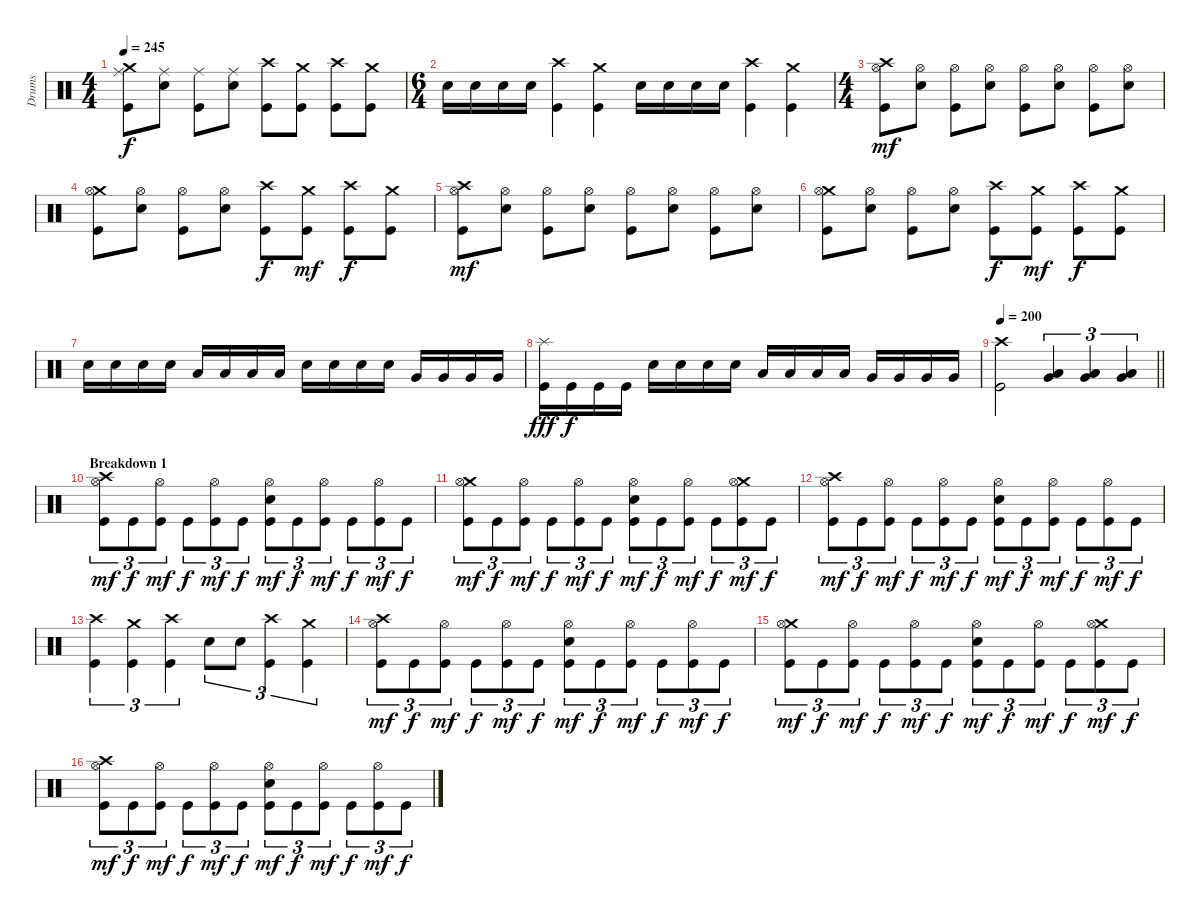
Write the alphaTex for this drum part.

\track ("Drums" "Drums") {instrument percussion}
\staff {score}
\articulation defaults
\ts (4 4)
\tempo 245
\clef neutral
\ks c
("Crash medium (hit)" "Ride (middle)" "Kick (hit)").8{dy f} ("Ride (middle)" "Electric Snare (hit)").8 ("Ride (middle)" "Kick (hit)").8 ("Ride (middle)" "Electric Snare (hit)").8 ("Crash high (hit)" "Kick (hit)").8 ("Crash medium (hit)" "Kick (hit)").8 ("Crash high (hit)" "Kick (hit)").8 ("Crash medium (hit)" "Kick (hit)").8 |
\ts (6 4)
"Electric Snare (hit)".16 "Electric Snare (hit)".16 "Electric Snare (hit)".16 "Electric Snare (hit)".16 ("Crash high (hit)" "Kick (hit)").4 ("Crash medium (hit)" "Kick (hit)").4 "Electric Snare (hit)".16 "Electric Snare (hit)".16 "Electric Snare (hit)".16 "Electric Snare (hit)".16 ("Crash high (hit)" "Kick (hit)").4 ("Crash medium (hit)" "Kick (hit)").4 |
\ts (4 4)
("Crash high (hit)" "Hi-Hat (open)" "Kick (hit)").8{dy mf} ("Hi-Hat (open)" "Electric Snare (hit)").8 ("Hi-Hat (open)" "Kick (hit)").8 ("Hi-Hat (open)" "Electric Snare (hit)").8 ("Hi-Hat (open)" "Kick (hit)").8 ("Hi-Hat (open)" "Electric Snare (hit)").8 ("Hi-Hat (open)" "Kick (hit)").8 ("Hi-Hat (open)" "Electric Snare (hit)").8 |
("Crash medium (hit)" "Hi-Hat (open)" "Kick (hit)").8 ("Hi-Hat (open)" "Electric Snare (hit)").8 ("Hi-Hat (open)" "Kick (hit)").8 ("Hi-Hat (open)" "Electric Snare (hit)").8 ("Crash high (hit)" "Kick (hit)").8{dy f} ("Crash medium (hit)" "Kick (hit)").8{dy mf} ("Crash high (hit)" "Kick (hit)").8{dy f} ("Crash medium (hit)" "Kick (hit)").8 |
("Crash high (hit)" "Hi-Hat (open)" "Kick (hit)").8{dy mf} ("Hi-Hat (open)" "Electric Snare (hit)").8 ("Hi-Hat (open)" "Kick (hit)").8 ("Hi-Hat (open)" "Electric Snare (hit)").8 ("Hi-Hat (open)" "Kick (hit)").8 ("Hi-Hat (open)" "Electric Snare (hit)").8 ("Hi-Hat (open)" "Kick (hit)").8 ("Hi-Hat (open)" "Electric Snare (hit)").8 |
("Crash medium (hit)" "Hi-Hat (open)" "Kick (hit)").8 ("Hi-Hat (open)" "Electric Snare (hit)").8 ("Hi-Hat (open)" "Kick (hit)").8 ("Hi-Hat (open)" "Electric Snare (hit)").8 ("Crash high (hit)" "Kick (hit)").8{dy f} ("Crash medium (hit)" "Kick (hit)").8{dy mf} ("Crash high (hit)" "Kick (hit)").8{dy f} ("Crash medium (hit)" "Kick (hit)").8 |
"Electric Snare (hit)".16 "Electric Snare (hit)".16 "Electric Snare (hit)".16 "Electric Snare (hit)".16 "Low Tom (hit)".16 "Low Tom (hit)".16 "Low Tom (hit)".16 "Low Tom (hit)".16 "Electric Snare (hit)".16 "Electric Snare (hit)".16 "Electric Snare (hit)".16 "Electric Snare (hit)".16 "Very Low Tom (hit)".16 "Very Low Tom (hit)".16 "Very Low Tom (hit)".16 "Very Low Tom (hit)".16 |
("Splash (hit)" "Kick (hit)").16{dy fff} "Kick (hit)".16{dy f} "Kick (hit)".16 "Kick (hit)".16 "Electric Snare (hit)".16 "Electric Snare (hit)".16 "Electric Snare (hit)".16 "Electric Snare (hit)".16 "Low Tom (hit)".16 "Low Tom (hit)".16 "Low Tom (hit)".16 "Low Tom (hit)".16 "Very Low Tom (hit)".16 "Very Low Tom (hit)".16 "Very Low Tom (hit)".16 "Very Low Tom (hit)".16 |
\tempo 200
\barLineRight lightlight
("Crash high (hit)" "Kick (hit)").2 ("Very Low Tom (hit)" "Low Tom (hit)").4{tu (3 2)} ("Very Low Tom (hit)" "Low Tom (hit)").4{tu (3 2)} ("Very Low Tom (hit)" "Low Tom (hit)").4{tu (3 2)} |
\section ("" "Breakdown 1")
("Crash high (hit)" "Hi-Hat (open)" "Kick (hit)").8{tu (3 2) dy mf} "Kick (hit)".8{tu (3 2) dy f} ("Hi-Hat (open)" "Kick (hit)").8{tu (3 2) dy mf} "Kick (hit)".8{tu (3 2) dy f} ("Hi-Hat (open)" "Kick (hit)").8{tu (3 2) dy mf} "Kick (hit)".8{tu (3 2) dy f} ("Hi-Hat (open)" "Electric Snare (hit)" "Kick (hit)").8{tu (3 2) dy mf} "Kick (hit)".8{tu (3 2) dy f} ("Hi-Hat (open)" "Kick (hit)").8{tu (3 2) dy mf} "Kick (hit)".8{tu (3 2) dy f} ("Hi-Hat (open)" "Kick (hit)").8{tu (3 2) dy mf} "Kick (hit)".8{tu (3 2) dy f} |
("Crash medium (hit)" "Hi-Hat (open)" "Kick (hit)").8{tu (3 2) dy mf} "Kick (hit)".8{tu (3 2) dy f} ("Hi-Hat (open)" "Kick (hit)").8{tu (3 2) dy mf} "Kick (hit)".8{tu (3 2) dy f} ("Hi-Hat (open)" "Kick (hit)").8{tu (3 2) dy mf} "Kick (hit)".8{tu (3 2) dy f} ("Hi-Hat (open)" "Electric Snare (hit)" "Kick (hit)").8{tu (3 2) dy mf} "Kick (hit)".8{tu (3 2) dy f} ("Hi-Hat (open)" "Kick (hit)").8{tu (3 2) dy mf} "Kick (hit)".8{tu (3 2) dy f} ("Crash medium (hit)" "Hi-Hat (open)" "Kick (hit)").8{tu (3 2) dy mf} "Kick (hit)".8{tu (3 2) dy f} |
("Crash high (hit)" "Hi-Hat (open)" "Kick (hit)").8{tu (3 2) dy mf} "Kick (hit)".8{tu (3 2) dy f} ("Hi-Hat (open)" "Kick (hit)").8{tu (3 2) dy mf} "Kick (hit)".8{tu (3 2) dy f} ("Hi-Hat (open)" "Kick (hit)").8{tu (3 2) dy mf} "Kick (hit)".8{tu (3 2) dy f} ("Hi-Hat (open)" "Electric Snare (hit)" "Kick (hit)").8{tu (3 2) dy mf} "Kick (hit)".8{tu (3 2) dy f} ("Hi-Hat (open)" "Kick (hit)").8{tu (3 2) dy mf} "Kick (hit)".8{tu (3 2) dy f} ("Hi-Hat (open)" "Kick (hit)").8{tu (3 2) dy mf} "Kick (hit)".8{tu (3 2) dy f} |
("Crash high (hit)" "Kick (hit)").4{tu (3 2)} ("Crash medium (hit)" "Kick (hit)").4{tu (3 2)} ("Crash high (hit)" "Kick (hit)").4{tu (3 2)} "Electric Snare (hit)".8{tu (3 2)} "Electric Snare (hit)".8{tu (3 2)} ("Crash high (hit)" "Kick (hit)").4{tu (3 2)} ("Crash medium (hit)" "Kick (hit)").4{tu (3 2)} |
("Crash high (hit)" "Hi-Hat (open)" "Kick (hit)").8{tu (3 2) dy mf} "Kick (hit)".8{tu (3 2) dy f} ("Hi-Hat (open)" "Kick (hit)").8{tu (3 2) dy mf} "Kick (hit)".8{tu (3 2) dy f} ("Hi-Hat (open)" "Kick (hit)").8{tu (3 2) dy mf} "Kick (hit)".8{tu (3 2) dy f} ("Hi-Hat (open)" "Electric Snare (hit)" "Kick (hit)").8{tu (3 2) dy mf} "Kick (hit)".8{tu (3 2) dy f} ("Hi-Hat (open)" "Kick (hit)").8{tu (3 2) dy mf} "Kick (hit)".8{tu (3 2) dy f} ("Hi-Hat (open)" "Kick (hit)").8{tu (3 2) dy mf} "Kick (hit)".8{tu (3 2) dy f} |
("Crash medium (hit)" "Hi-Hat (open)" "Kick (hit)").8{tu (3 2) dy mf} "Kick (hit)".8{tu (3 2) dy f} ("Hi-Hat (open)" "Kick (hit)").8{tu (3 2) dy mf} "Kick (hit)".8{tu (3 2) dy f} ("Hi-Hat (open)" "Kick (hit)").8{tu (3 2) dy mf} "Kick (hit)".8{tu (3 2) dy f} ("Hi-Hat (open)" "Electric Snare (hit)" "Kick (hit)").8{tu (3 2) dy mf} "Kick (hit)".8{tu (3 2) dy f} ("Hi-Hat (open)" "Kick (hit)").8{tu (3 2) dy mf} "Kick (hit)".8{tu (3 2) dy f} ("Crash medium (hit)" "Hi-Hat (open)" "Kick (hit)").8{tu (3 2) dy mf} "Kick (hit)".8{tu (3 2) dy f} |
("Crash high (hit)" "Hi-Hat (open)" "Kick (hit)").8{tu (3 2) dy mf} "Kick (hit)".8{tu (3 2) dy f} ("Hi-Hat (open)" "Kick (hit)").8{tu (3 2) dy mf} "Kick (hit)".8{tu (3 2) dy f} ("Hi-Hat (open)" "Kick (hit)").8{tu (3 2) dy mf} "Kick (hit)".8{tu (3 2) dy f} ("Hi-Hat (open)" "Electric Snare (hit)" "Kick (hit)").8{tu (3 2) dy mf} "Kick (hit)".8{tu (3 2) dy f} ("Hi-Hat (open)" "Kick (hit)").8{tu (3 2) dy mf} "Kick (hit)".8{tu (3 2) dy f} ("Hi-Hat (open)" "Kick (hit)").8{tu (3 2) dy mf} "Kick (hit)".8{tu (3 2) dy f}
